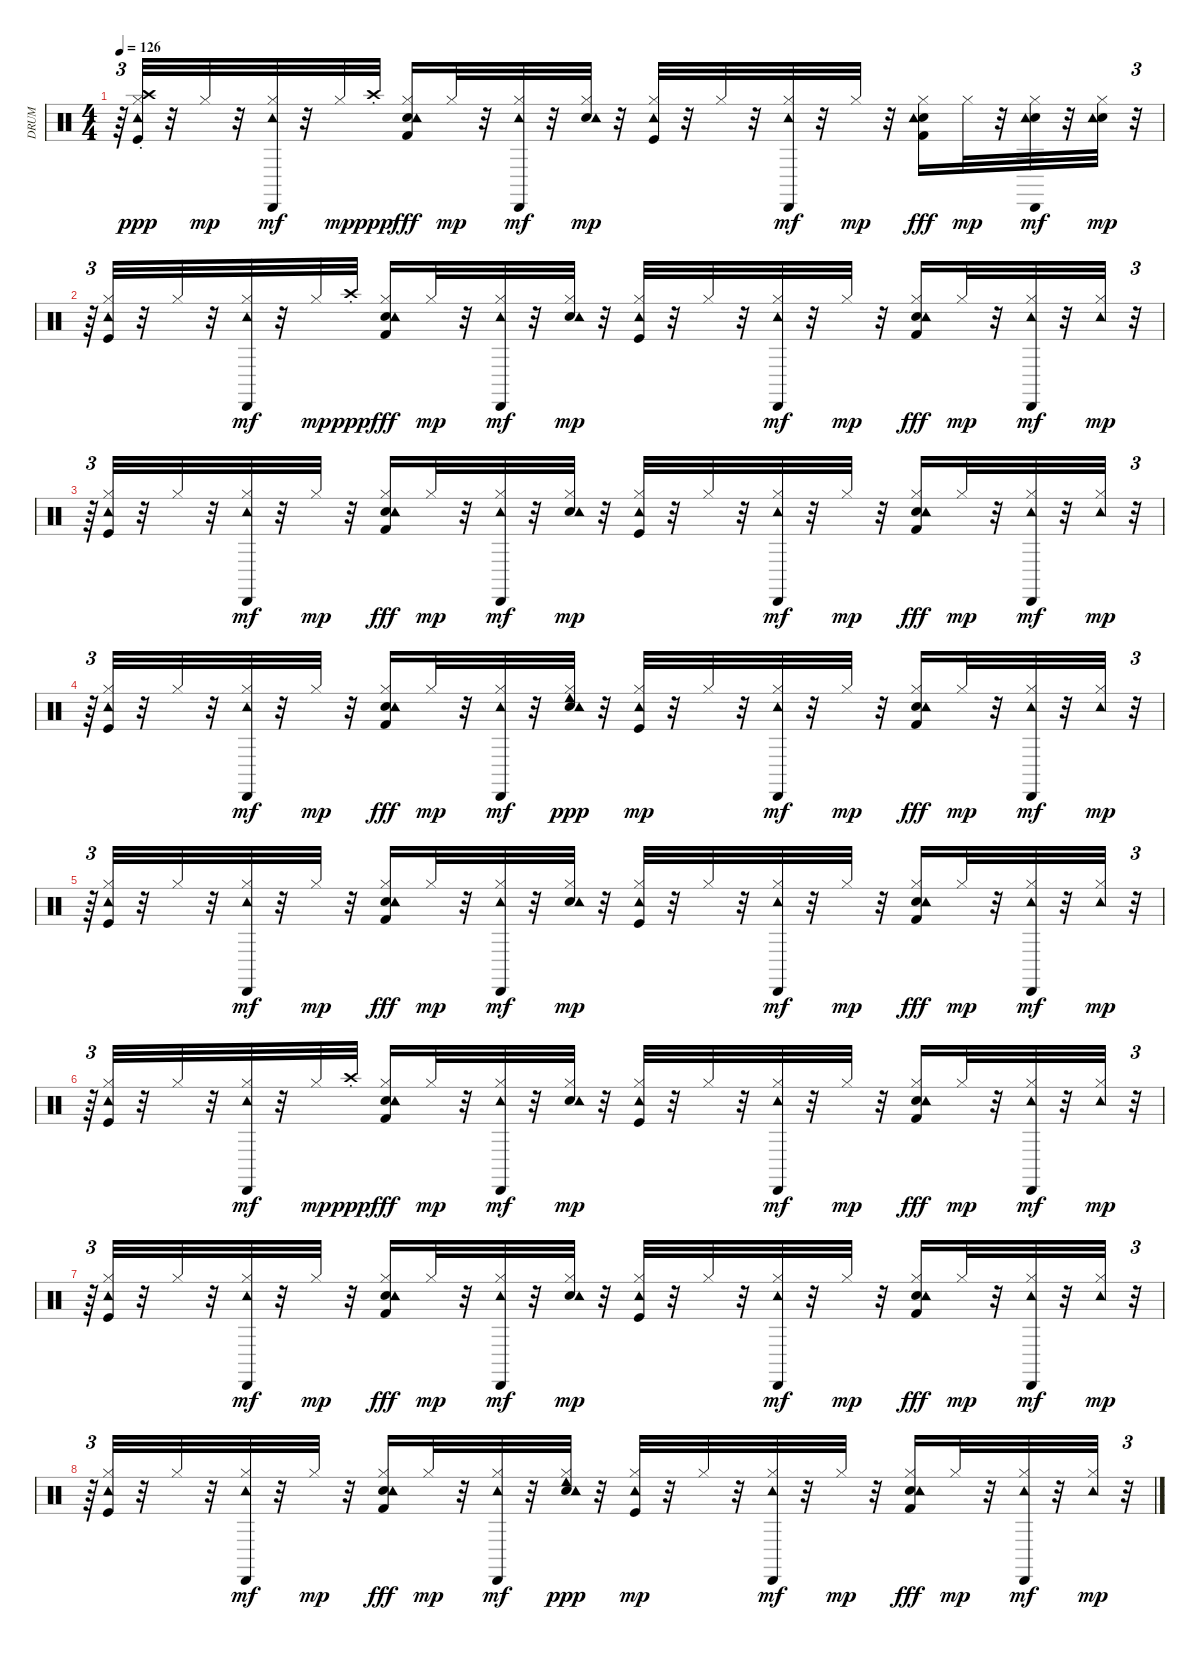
\track ("DRUM" "DRUM") {instrument percussion}
\staff {score}
\articulation defaults
\ts (4 4)
\tempo 126
\clef neutral
\ks c
r.64{tu (3 2) dy mp} ("Kick (hit)" "Hi-Hat (closed)" "Tambourine (hit)" "Crash high (choke)").32{dy ppp} r.32 "Hi-Hat (closed)".32{dy mp} r.32 ("Hi-Hat (closed)" "Tambourine (hit)" "Cabasa (hit)").32{dy mf} r.32 "Hi-Hat (closed)".32{dy mp} "Crash high (choke)".32{dy ppp} ("Snare (hit) 2" "Hi-Hat (closed)" "Tambourine (hit)" "Kick (hit) 2").16{dy fff} "Hi-Hat (closed)".32{dy mp} r.32 ("Hi-Hat (closed)" "Tambourine (hit)" "Cabasa (hit)").32{dy mf} r.32 ("Snare (hit) 2" "Hi-Hat (closed)" "Tambourine (hit)").32{dy mp} r.32 ("Kick (hit)" "Hi-Hat (closed)" "Tambourine (hit)").32 r.32 "Hi-Hat (closed)".32 r.32 ("Hi-Hat (closed)" "Tambourine (hit)" "Cabasa (hit)").32{dy mf} r.32 "Hi-Hat (closed)".32{dy mp} r.32 ("Snare (hit) 2" "Hi-Hat (closed)" "Tambourine (hit)" "Kick (hit) 2").16{dy fff} "Hi-Hat (closed)".32{dy mp} r.32 ("Snare (hit) 2" "Hi-Hat (closed)" "Tambourine (hit)" "Cabasa (hit)").32{dy mf} r.32 ("Snare (hit) 2" "Hi-Hat (closed)" "Tambourine (hit)").32{dy mp} r.32{tu (3 2)} |
r.64{tu (3 2)} ("Kick (hit)" "Hi-Hat (closed)" "Tambourine (hit)").32 r.32 "Hi-Hat (closed)".32 r.32 ("Hi-Hat (closed)" "Tambourine (hit)" "Cabasa (hit)").32{dy mf} r.32 "Hi-Hat (closed)".32{dy mp} "Crash high (choke)".32{dy ppp} ("Snare (hit) 2" "Hi-Hat (closed)" "Tambourine (hit)" "Kick (hit) 2").16{dy fff} "Hi-Hat (closed)".32{dy mp} r.32 ("Hi-Hat (closed)" "Tambourine (hit)" "Cabasa (hit)").32{dy mf} r.32 ("Snare (hit) 2" "Hi-Hat (closed)" "Tambourine (hit)").32{dy mp} r.32 ("Kick (hit)" "Hi-Hat (closed)" "Tambourine (hit)").32 r.32 "Hi-Hat (closed)".32 r.32 ("Hi-Hat (closed)" "Tambourine (hit)" "Cabasa (hit)").32{dy mf} r.32 "Hi-Hat (closed)".32{dy mp} r.32 ("Snare (hit) 2" "Hi-Hat (closed)" "Tambourine (hit)" "Kick (hit) 2").16{dy fff} "Hi-Hat (closed)".32{dy mp} r.32 ("Hi-Hat (closed)" "Tambourine (hit)" "Cabasa (hit)").32{dy mf} r.32 ("Hi-Hat (closed)" "Tambourine (hit)").32{dy mp} r.32{tu (3 2)} |
r.64{tu (3 2)} ("Kick (hit)" "Hi-Hat (closed)" "Tambourine (hit)").32 r.32 "Hi-Hat (closed)".32 r.32 ("Hi-Hat (closed)" "Tambourine (hit)" "Cabasa (hit)").32{dy mf} r.32 "Hi-Hat (closed)".32{dy mp} r.32 ("Snare (hit) 2" "Hi-Hat (closed)" "Tambourine (hit)" "Kick (hit) 2").16{dy fff} "Hi-Hat (closed)".32{dy mp} r.32 ("Hi-Hat (closed)" "Tambourine (hit)" "Cabasa (hit)").32{dy mf} r.32 ("Snare (hit) 2" "Hi-Hat (closed)" "Tambourine (hit)").32{dy mp} r.32 ("Kick (hit)" "Hi-Hat (closed)" "Tambourine (hit)").32 r.32 "Hi-Hat (closed)".32 r.32 ("Hi-Hat (closed)" "Tambourine (hit)" "Cabasa (hit)").32{dy mf} r.32 "Hi-Hat (closed)".32{dy mp} r.32 ("Snare (hit) 2" "Hi-Hat (closed)" "Tambourine (hit)" "Kick (hit) 2").16{dy fff} "Hi-Hat (closed)".32{dy mp} r.32 ("Hi-Hat (closed)" "Tambourine (hit)" "Cabasa (hit)").32{dy mf} r.32 ("Hi-Hat (closed)" "Tambourine (hit)").32{dy mp} r.32{tu (3 2)} |
r.64{tu (3 2)} ("Kick (hit)" "Hi-Hat (closed)" "Tambourine (hit)").32 r.32 "Hi-Hat (closed)".32 r.32 ("Hi-Hat (closed)" "Tambourine (hit)" "Cabasa (hit)").32{dy mf} r.32 "Hi-Hat (closed)".32{dy mp} r.32 ("Snare (hit) 2" "Hi-Hat (closed)" "Tambourine (hit)" "Kick (hit) 2").16{dy fff} "Hi-Hat (closed)".32{dy mp} r.32 ("Hi-Hat (closed)" "Tambourine (hit)" "Cabasa (hit)").32{dy mf} r.32 ("Snare (hit) 2" "Hi-Hat (closed)" "Tambourine (hit)" "Cowbell low (hit)").32{dy ppp} r.32 ("Kick (hit)" "Hi-Hat (closed)" "Tambourine (hit)").32{dy mp} r.32 "Hi-Hat (closed)".32 r.32 ("Hi-Hat (closed)" "Tambourine (hit)" "Cabasa (hit)").32{dy mf} r.32 "Hi-Hat (closed)".32{dy mp} r.32 ("Snare (hit) 2" "Hi-Hat (closed)" "Tambourine (hit)" "Kick (hit) 2").16{dy fff} "Hi-Hat (closed)".32{dy mp} r.32 ("Hi-Hat (closed)" "Tambourine (hit)" "Cabasa (hit)").32{dy mf} r.32 ("Hi-Hat (closed)" "Tambourine (hit)").32{dy mp} r.32{tu (3 2)} |
r.64{tu (3 2)} ("Kick (hit)" "Hi-Hat (closed)" "Tambourine (hit)").32 r.32 "Hi-Hat (closed)".32 r.32 ("Hi-Hat (closed)" "Tambourine (hit)" "Cabasa (hit)").32{dy mf} r.32 "Hi-Hat (closed)".32{dy mp} r.32 ("Snare (hit) 2" "Hi-Hat (closed)" "Tambourine (hit)" "Kick (hit) 2").16{dy fff} "Hi-Hat (closed)".32{dy mp} r.32 ("Hi-Hat (closed)" "Tambourine (hit)" "Cabasa (hit)").32{dy mf} r.32 ("Snare (hit) 2" "Hi-Hat (closed)" "Tambourine (hit)").32{dy mp} r.32 ("Kick (hit)" "Hi-Hat (closed)" "Tambourine (hit)").32 r.32 "Hi-Hat (closed)".32 r.32 ("Hi-Hat (closed)" "Tambourine (hit)" "Cabasa (hit)").32{dy mf} r.32 "Hi-Hat (closed)".32{dy mp} r.32 ("Snare (hit) 2" "Hi-Hat (closed)" "Tambourine (hit)" "Kick (hit) 2").16{dy fff} "Hi-Hat (closed)".32{dy mp} r.32 ("Hi-Hat (closed)" "Tambourine (hit)" "Cabasa (hit)").32{dy mf} r.32 ("Hi-Hat (closed)" "Tambourine (hit)").32{dy mp} r.32{tu (3 2)} |
r.64{tu (3 2)} ("Kick (hit)" "Hi-Hat (closed)" "Tambourine (hit)").32 r.32 "Hi-Hat (closed)".32 r.32 ("Hi-Hat (closed)" "Tambourine (hit)" "Cabasa (hit)").32{dy mf} r.32 "Hi-Hat (closed)".32{dy mp} "Crash high (choke)".32{dy ppp} ("Snare (hit) 2" "Hi-Hat (closed)" "Tambourine (hit)" "Kick (hit) 2").16{dy fff} "Hi-Hat (closed)".32{dy mp} r.32 ("Hi-Hat (closed)" "Tambourine (hit)" "Cabasa (hit)").32{dy mf} r.32 ("Snare (hit) 2" "Hi-Hat (closed)" "Tambourine (hit)").32{dy mp} r.32 ("Kick (hit)" "Hi-Hat (closed)" "Tambourine (hit)").32 r.32 "Hi-Hat (closed)".32 r.32 ("Hi-Hat (closed)" "Tambourine (hit)" "Cabasa (hit)").32{dy mf} r.32 "Hi-Hat (closed)".32{dy mp} r.32 ("Snare (hit) 2" "Hi-Hat (closed)" "Tambourine (hit)" "Kick (hit) 2").16{dy fff} "Hi-Hat (closed)".32{dy mp} r.32 ("Hi-Hat (closed)" "Tambourine (hit)" "Cabasa (hit)").32{dy mf} r.32 ("Hi-Hat (closed)" "Tambourine (hit)").32{dy mp} r.32{tu (3 2)} |
r.64{tu (3 2)} ("Kick (hit)" "Hi-Hat (closed)" "Tambourine (hit)").32 r.32 "Hi-Hat (closed)".32 r.32 ("Hi-Hat (closed)" "Tambourine (hit)" "Cabasa (hit)").32{dy mf} r.32 "Hi-Hat (closed)".32{dy mp} r.32 ("Snare (hit) 2" "Hi-Hat (closed)" "Tambourine (hit)" "Kick (hit) 2").16{dy fff} "Hi-Hat (closed)".32{dy mp} r.32 ("Hi-Hat (closed)" "Tambourine (hit)" "Cabasa (hit)").32{dy mf} r.32 ("Snare (hit) 2" "Hi-Hat (closed)" "Tambourine (hit)").32{dy mp} r.32 ("Kick (hit)" "Hi-Hat (closed)" "Tambourine (hit)").32 r.32 "Hi-Hat (closed)".32 r.32 ("Hi-Hat (closed)" "Tambourine (hit)" "Cabasa (hit)").32{dy mf} r.32 "Hi-Hat (closed)".32{dy mp} r.32 ("Snare (hit) 2" "Hi-Hat (closed)" "Tambourine (hit)" "Kick (hit) 2").16{dy fff} "Hi-Hat (closed)".32{dy mp} r.32 ("Hi-Hat (closed)" "Tambourine (hit)" "Cabasa (hit)").32{dy mf} r.32 ("Hi-Hat (closed)" "Tambourine (hit)").32{dy mp} r.32{tu (3 2)} |
r.64{tu (3 2)} ("Kick (hit)" "Hi-Hat (closed)" "Tambourine (hit)").32 r.32 "Hi-Hat (closed)".32 r.32 ("Hi-Hat (closed)" "Tambourine (hit)" "Cabasa (hit)").32{dy mf} r.32 "Hi-Hat (closed)".32{dy mp} r.32 ("Snare (hit) 2" "Hi-Hat (closed)" "Tambourine (hit)" "Kick (hit) 2").16{dy fff} "Hi-Hat (closed)".32{dy mp} r.32 ("Hi-Hat (closed)" "Tambourine (hit)" "Cabasa (hit)").32{dy mf} r.32 ("Snare (hit) 2" "Hi-Hat (closed)" "Tambourine (hit)" "Cowbell low (hit)").32{dy ppp} r.32 ("Kick (hit)" "Hi-Hat (closed)" "Tambourine (hit)").32{dy mp} r.32 "Hi-Hat (closed)".32 r.32 ("Hi-Hat (closed)" "Tambourine (hit)" "Cabasa (hit)").32{dy mf} r.32 "Hi-Hat (closed)".32{dy mp} r.32 ("Snare (hit) 2" "Hi-Hat (closed)" "Tambourine (hit)" "Kick (hit) 2").16{dy fff} "Hi-Hat (closed)".32{dy mp} r.32 ("Hi-Hat (closed)" "Tambourine (hit)" "Cabasa (hit)").32{dy mf} r.32 ("Hi-Hat (closed)" "Tambourine (hit)").32{dy mp} r.32{tu (3 2)}
